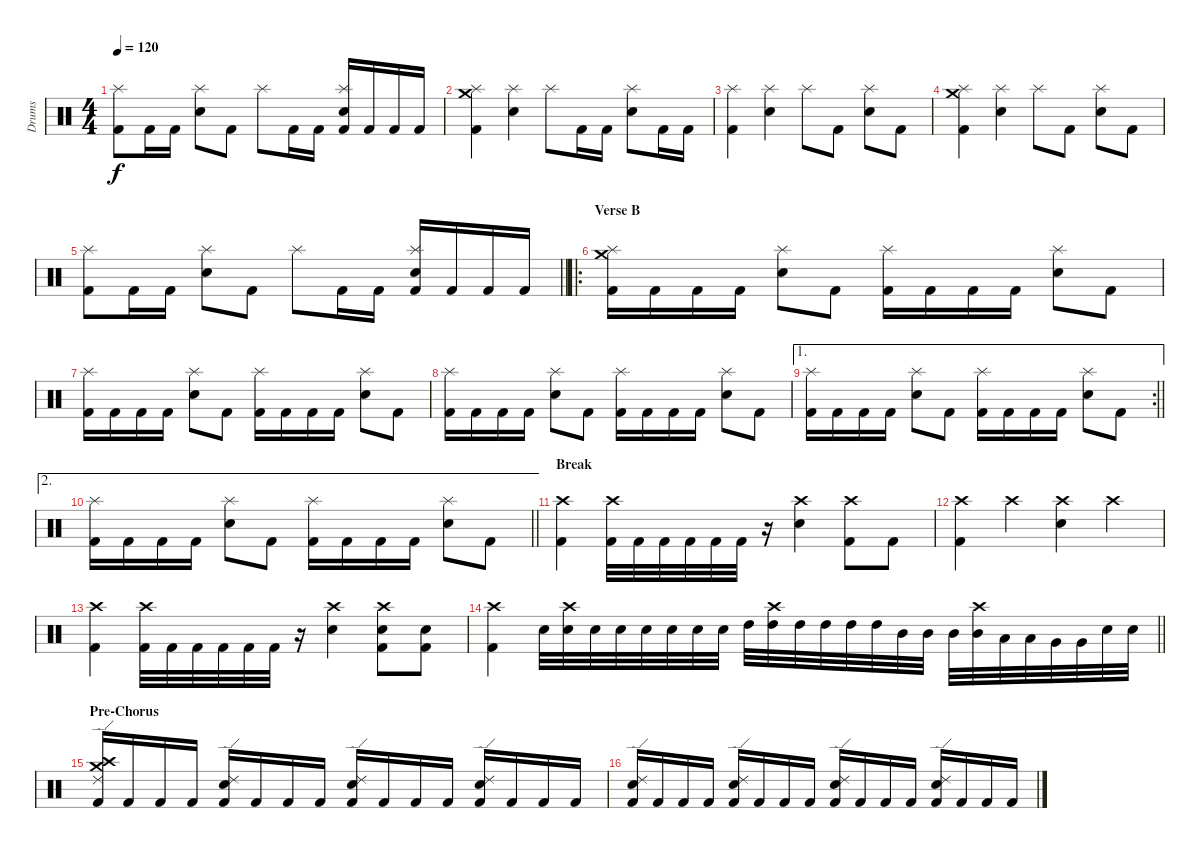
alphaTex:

\track ("Drums" "Drums") {instrument percussion}
\staff {score}
\articulation defaults
\ts (4 4)
\tempo 120
\clef neutral
\ks c
("Kick (hit) 2" "Splash (hit)").8{dy f} "Kick (hit) 2".16 "Kick (hit) 2".16 ("Snare (hit) 2" "Splash (hit)").8 "Kick (hit) 2".8 "Splash (hit)".8 "Kick (hit) 2".16 "Kick (hit) 2".16 ("Kick (hit) 2" "Snare (hit) 2" "Splash (hit)").16 "Kick (hit) 2".16 "Kick (hit) 2".16 "Kick (hit) 2".16 |
("Kick (hit) 2" "Splash (hit)" "Crash medium (hit)").4 ("Snare (hit) 2" "Splash (hit)").4 "Splash (hit)".8 "Kick (hit) 2".16 "Kick (hit) 2".16 ("Snare (hit) 2" "Splash (hit)").8 "Kick (hit) 2".16 "Kick (hit) 2".16 |
("Kick (hit) 2" "Splash (hit)").4 ("Snare (hit) 2" "Splash (hit)").4 "Splash (hit)".8 "Kick (hit) 2".8 ("Snare (hit) 2" "Splash (hit)").8 "Kick (hit) 2".8 |
("Kick (hit) 2" "Splash (hit)" "Crash medium (hit)").4 ("Snare (hit) 2" "Splash (hit)").4 "Splash (hit)".8 "Kick (hit) 2".8 ("Snare (hit) 2" "Splash (hit)").8 "Kick (hit) 2".8 |
\barLineRight lightlight
("Kick (hit) 2" "Splash (hit)").8 "Kick (hit) 2".16 "Kick (hit) 2".16 ("Snare (hit) 2" "Splash (hit)").8 "Kick (hit) 2".8 "Splash (hit)".8 "Kick (hit) 2".16 "Kick (hit) 2".16 ("Kick (hit) 2" "Snare (hit) 2" "Splash (hit)").16 "Kick (hit) 2".16 "Kick (hit) 2".16 "Kick (hit) 2".16 |
\ro
\section ("" "Verse B")
("Kick (hit) 2" "Splash (hit)" "Crash medium (hit)").16 "Kick (hit) 2".16 "Kick (hit) 2".16 "Kick (hit) 2".16 ("Snare (hit) 2" "Splash (hit)").8 "Kick (hit) 2".8 ("Kick (hit) 2" "Splash (hit)").16 "Kick (hit) 2".16 "Kick (hit) 2".16 "Kick (hit) 2".16 ("Snare (hit) 2" "Splash (hit)").8 "Kick (hit) 2".8 |
("Kick (hit) 2" "Splash (hit)").16 "Kick (hit) 2".16 "Kick (hit) 2".16 "Kick (hit) 2".16 ("Snare (hit) 2" "Splash (hit)").8 "Kick (hit) 2".8 ("Kick (hit) 2" "Splash (hit)").16 "Kick (hit) 2".16 "Kick (hit) 2".16 "Kick (hit) 2".16 ("Snare (hit) 2" "Splash (hit)").8 "Kick (hit) 2".8 |
("Kick (hit) 2" "Splash (hit)").16 "Kick (hit) 2".16 "Kick (hit) 2".16 "Kick (hit) 2".16 ("Snare (hit) 2" "Splash (hit)").8 "Kick (hit) 2".8 ("Kick (hit) 2" "Splash (hit)").16 "Kick (hit) 2".16 "Kick (hit) 2".16 "Kick (hit) 2".16 ("Snare (hit) 2" "Splash (hit)").8 "Kick (hit) 2".8 |
\ae 1
\rc 2
\barLineRight lightlight
("Kick (hit) 2" "Splash (hit)").16 "Kick (hit) 2".16 "Kick (hit) 2".16 "Kick (hit) 2".16 ("Snare (hit) 2" "Splash (hit)").8 "Kick (hit) 2".8 ("Kick (hit) 2" "Splash (hit)").16 "Kick (hit) 2".16 "Kick (hit) 2".16 "Kick (hit) 2".16 ("Snare (hit) 2" "Splash (hit)").8 "Kick (hit) 2".8 |
\ae 2
\barLineRight lightlight
("Kick (hit) 2" "Splash (hit)").16 "Kick (hit) 2".16 "Kick (hit) 2".16 "Kick (hit) 2".16 ("Snare (hit) 2" "Splash (hit)").8 "Kick (hit) 2".8 ("Kick (hit) 2" "Splash (hit)").16 "Kick (hit) 2".16 "Kick (hit) 2".16 "Kick (hit) 2".16 ("Snare (hit) 2" "Splash (hit)").8 "Kick (hit) 2".8 |
\section ("" "Break")
("Kick (hit) 2" "Crash high (hit)").4 ("Kick (hit) 2" "Crash high (hit)").32 "Kick (hit) 2".32 "Kick (hit) 2".32 "Kick (hit) 2".32 "Kick (hit) 2".32 "Kick (hit) 2".32 r.16 ("Snare (hit) 2" "Crash high (hit)").4 ("Kick (hit) 2" "Crash high (hit)").8 "Kick (hit) 2".8 |
("Kick (hit) 2" "Crash high (hit)").4 "Crash high (hit)".4 ("Snare (hit) 2" "Crash high (hit)").4 "Crash high (hit)".4 |
("Kick (hit) 2" "Crash high (hit)").4 ("Kick (hit) 2" "Crash high (hit)").32 "Kick (hit) 2".32 "Kick (hit) 2".32 "Kick (hit) 2".32 "Kick (hit) 2".32 "Kick (hit) 2".32 r.16 ("Snare (hit) 2" "Crash high (hit)").4 ("Kick (hit) 2" "Snare (hit) 2" "Crash high (hit)").8 ("Kick (hit) 2" "Snare (hit) 2").8 |
\barLineRight lightlight
("Kick (hit) 2" "Crash high (hit)").4 "Snare (hit) 2".32 ("Snare (hit) 2" "Crash high (hit)").32 "Snare (hit) 2".32 "Snare (hit) 2".32 "Snare (hit) 2".32 "Snare (hit) 2".32 "Snare (hit) 2".32 "Snare (hit) 2".32 "High Tom (hit)".32 ("High Tom (hit)" "Crash high (hit)").32 "High Tom (hit)".32 "High Tom (hit)".32 "High Tom (hit)".32 "High Tom (hit)".32 "Mid Tom (hit)".32 "Mid Tom (hit)".32 "Mid Tom (hit)".32 ("Mid Tom (hit)" "Crash high (hit)").32 "Low Tom (hit)".32 "Low Tom (hit)".32 "Very Low Tom (hit)".32 "Very Low Tom (hit)".32 "Snare (hit) 2".32 "Snare (hit) 2".32 |
\section ("" "Pre-Chorus")
("Kick (hit) 2" "Ride (edge) 2" "Crash high (hit)" "Crash medium (hit)").16 "Kick (hit) 2".16 "Kick (hit) 2".16 "Kick (hit) 2".16 ("Kick (hit) 2" "Snare (hit) 2" "Ride (edge) 2").16 "Kick (hit) 2".16 "Kick (hit) 2".16 "Kick (hit) 2".16 ("Kick (hit) 2" "Snare (hit) 2" "Ride (edge) 2").16 "Kick (hit) 2".16 "Kick (hit) 2".16 "Kick (hit) 2".16 ("Kick (hit) 2" "Snare (hit) 2" "Ride (edge) 2").16 "Kick (hit) 2".16 "Kick (hit) 2".16 "Kick (hit) 2".16 |
("Kick (hit) 2" "Snare (hit) 2" "Ride (edge) 2").16 "Kick (hit) 2".16 "Kick (hit) 2".16 "Kick (hit) 2".16 ("Kick (hit) 2" "Snare (hit) 2" "Ride (edge) 2").16 "Kick (hit) 2".16 "Kick (hit) 2".16 "Kick (hit) 2".16 ("Kick (hit) 2" "Snare (hit) 2" "Ride (edge) 2").16 "Kick (hit) 2".16 "Kick (hit) 2".16 "Kick (hit) 2".16 ("Kick (hit) 2" "Snare (hit) 2" "Ride (edge) 2").16 "Kick (hit) 2".16 "Kick (hit) 2".16 "Kick (hit) 2".16
